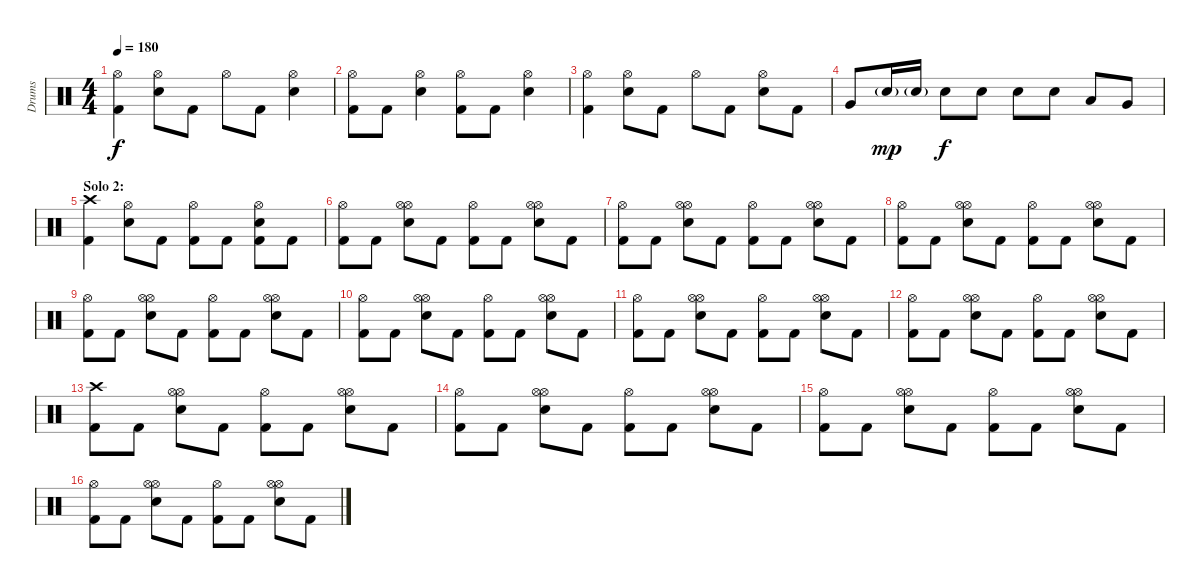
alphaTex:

\track ("Drums" "Drums") {instrument percussion}
\staff {score}
\articulation defaults
\ts (4 4)
\tempo 180
\clef neutral
\ks c
("Hi-Hat (open)" "Kick (hit) 2").4{dy f} ("Hi-Hat (open)" "Electric Snare (hit)").8 "Kick (hit) 2".8 "Hi-Hat (open)".8 "Kick (hit) 2".8 ("Hi-Hat (open)" "Electric Snare (hit)").4 |
("Hi-Hat (open)" "Kick (hit) 2").8 "Kick (hit) 2".8 ("Hi-Hat (open)" "Electric Snare (hit)").4 ("Hi-Hat (open)" "Kick (hit) 2").8 "Kick (hit) 2".8 ("Hi-Hat (open)" "Electric Snare (hit)").4 |
("Hi-Hat (open)" "Kick (hit) 2").4 ("Hi-Hat (open)" "Electric Snare (hit)").8 "Kick (hit) 2".8 "Hi-Hat (open)".8 "Kick (hit) 2".8 ("Hi-Hat (open)" "Electric Snare (hit)").8 "Kick (hit) 2".8 |
"Very Low Tom (hit)".8 "Electric Snare (hit)"{g}.16{dy mp} "Electric Snare (hit)"{g}.16 "Electric Snare (hit)".8{dy f} "Electric Snare (hit)".8 "Electric Snare (hit)".8 "Electric Snare (hit)".8 "Low Tom (hit)".8 "Very Low Tom (hit)".8 |
\section ("" "Solo 2:")
("Crash high (hit)" "Kick (hit) 2").4 ("Hi-Hat (open)" "Electric Snare (hit)").8 "Kick (hit) 2".8 ("Hi-Hat (open)" "Kick (hit) 2").8 "Kick (hit) 2".8 ("Hi-Hat (open)" "Electric Snare (hit)" "Kick (hit) 2").8 "Kick (hit) 2".8 |
("Hi-Hat (open)" "Kick (hit) 2").8 "Kick (hit) 2".8 ("Hi-Hat (open)" "Electric Snare (hit)" "Hi-Hat (open)").8 "Kick (hit) 2".8 ("Hi-Hat (open)" "Kick (hit) 2").8 "Kick (hit) 2".8 ("Hi-Hat (open)" "Electric Snare (hit)" "Hi-Hat (open)").8 "Kick (hit) 2".8 |
("Hi-Hat (open)" "Kick (hit) 2").8 "Kick (hit) 2".8 ("Hi-Hat (open)" "Electric Snare (hit)" "Hi-Hat (open)").8 "Kick (hit) 2".8 ("Hi-Hat (open)" "Kick (hit) 2").8 "Kick (hit) 2".8 ("Hi-Hat (open)" "Electric Snare (hit)" "Hi-Hat (open)").8 "Kick (hit) 2".8 |
("Hi-Hat (open)" "Kick (hit) 2").8 "Kick (hit) 2".8 ("Hi-Hat (open)" "Electric Snare (hit)" "Hi-Hat (open)").8 "Kick (hit) 2".8 ("Hi-Hat (open)" "Kick (hit) 2").8 "Kick (hit) 2".8 ("Hi-Hat (open)" "Electric Snare (hit)" "Hi-Hat (open)").8 "Kick (hit) 2".8 |
("Hi-Hat (open)" "Kick (hit) 2").8 "Kick (hit) 2".8 ("Hi-Hat (open)" "Electric Snare (hit)" "Hi-Hat (open)").8 "Kick (hit) 2".8 ("Hi-Hat (open)" "Kick (hit) 2").8 "Kick (hit) 2".8 ("Hi-Hat (open)" "Electric Snare (hit)" "Hi-Hat (open)").8 "Kick (hit) 2".8 |
("Hi-Hat (open)" "Kick (hit) 2").8 "Kick (hit) 2".8 ("Hi-Hat (open)" "Electric Snare (hit)" "Hi-Hat (open)").8 "Kick (hit) 2".8 ("Hi-Hat (open)" "Kick (hit) 2").8 "Kick (hit) 2".8 ("Hi-Hat (open)" "Electric Snare (hit)" "Hi-Hat (open)").8 "Kick (hit) 2".8 |
("Hi-Hat (open)" "Kick (hit) 2").8 "Kick (hit) 2".8 ("Hi-Hat (open)" "Electric Snare (hit)" "Hi-Hat (open)").8 "Kick (hit) 2".8 ("Hi-Hat (open)" "Kick (hit) 2").8 "Kick (hit) 2".8 ("Hi-Hat (open)" "Electric Snare (hit)" "Hi-Hat (open)").8 "Kick (hit) 2".8 |
("Hi-Hat (open)" "Kick (hit) 2").8 "Kick (hit) 2".8 ("Hi-Hat (open)" "Electric Snare (hit)" "Hi-Hat (open)").8 "Kick (hit) 2".8 ("Hi-Hat (open)" "Kick (hit) 2").8 "Kick (hit) 2".8 ("Hi-Hat (open)" "Electric Snare (hit)" "Hi-Hat (open)").8 "Kick (hit) 2".8 |
("Crash high (hit)" "Kick (hit) 2").8 "Kick (hit) 2".8 ("Hi-Hat (open)" "Electric Snare (hit)" "Hi-Hat (open)").8 "Kick (hit) 2".8 ("Hi-Hat (open)" "Kick (hit) 2").8 "Kick (hit) 2".8 ("Hi-Hat (open)" "Electric Snare (hit)" "Hi-Hat (open)").8 "Kick (hit) 2".8 |
("Hi-Hat (open)" "Kick (hit) 2").8 "Kick (hit) 2".8 ("Hi-Hat (open)" "Electric Snare (hit)" "Hi-Hat (open)").8 "Kick (hit) 2".8 ("Hi-Hat (open)" "Kick (hit) 2").8 "Kick (hit) 2".8 ("Hi-Hat (open)" "Electric Snare (hit)" "Hi-Hat (open)").8 "Kick (hit) 2".8 |
("Hi-Hat (open)" "Kick (hit) 2").8 "Kick (hit) 2".8 ("Hi-Hat (open)" "Electric Snare (hit)" "Hi-Hat (open)").8 "Kick (hit) 2".8 ("Hi-Hat (open)" "Kick (hit) 2").8 "Kick (hit) 2".8 ("Hi-Hat (open)" "Electric Snare (hit)" "Hi-Hat (open)").8 "Kick (hit) 2".8 |
("Hi-Hat (open)" "Kick (hit) 2").8 "Kick (hit) 2".8 ("Hi-Hat (open)" "Electric Snare (hit)" "Hi-Hat (open)").8 "Kick (hit) 2".8 ("Hi-Hat (open)" "Kick (hit) 2").8 "Kick (hit) 2".8 ("Hi-Hat (open)" "Electric Snare (hit)" "Hi-Hat (open)").8 "Kick (hit) 2".8
